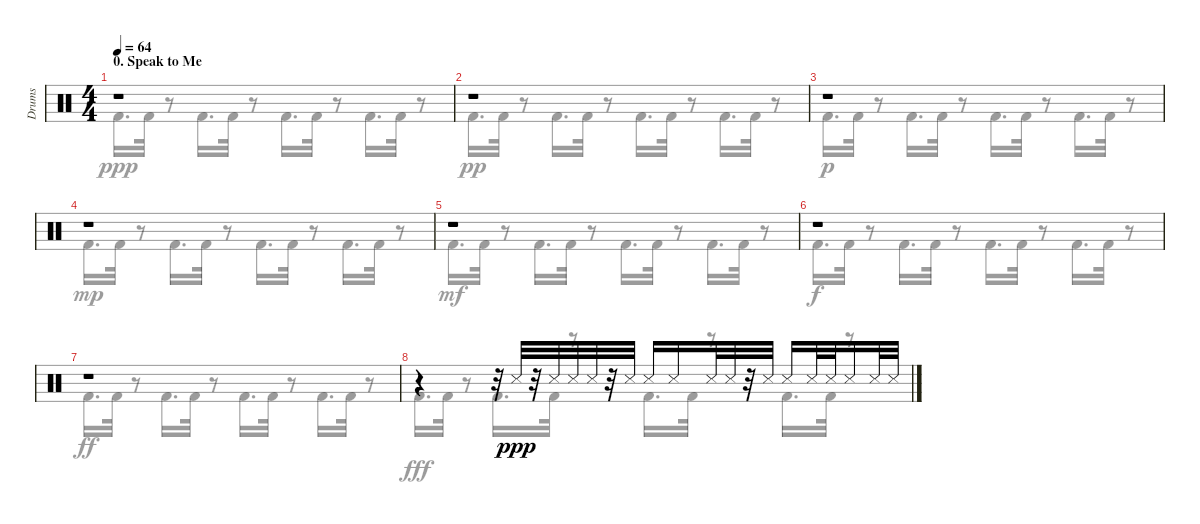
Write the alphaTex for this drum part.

\track ("Drums" "Drums") {instrument percussion}
\staff {score}
\articulation defaults
\voice
\ts (4 4)
\section ("" "0. Speak to Me")
\tempo 64
\clef neutral
\ks c
r.1{dy ppp volume 12} |
r.1 |
r.1 |
r.1 |
r.1 |
r.1 |
r.1 |
r.4 r.32 "Snare (side stick) 3".32 r.32 "Metronome (hit)".32 "Snare (side stick) 3".32 "Metronome (hit)".32 r.32 "Snare (side stick) 3".32 "Metronome (hit)".16 "Snare (side stick) 3".16 "Metronome (hit)".32 "Snare (side stick) 3".32 r.32 "Metronome (hit)".32 "Snare (side stick) 3".16 "Metronome (hit)".32 "Snare (side stick) 3".32 "Metronome (hit)".16 "Snare (side stick) 3".32 "Metronome (hit)".32
\voice
\clef neutral
\ottava regular
\simile none
\ks c "Kick (hit) 2".16{d dy ppp} "Kick (hit) 2".32
r.8 "Kick (hit) 2".16{d} "Kick (hit) 2".32 r.8 "Kick (hit) 2".16{d} "Kick (hit) 2".32 r.8 "Kick (hit) 2".16{d} "Kick (hit) 2".32 r.8 |
"Kick (hit) 2".16{d dy pp} "Kick (hit) 2".32 r.8 "Kick (hit) 2".16{d} "Kick (hit) 2".32 r.8 "Kick (hit) 2".16{d} "Kick (hit) 2".32 r.8 "Kick (hit) 2".16{d} "Kick (hit) 2".32 r.8 |
"Kick (hit) 2".16{d dy p} "Kick (hit) 2".32 r.8 "Kick (hit) 2".16{d} "Kick (hit) 2".32 r.8 "Kick (hit) 2".16{d} "Kick (hit) 2".32 r.8 "Kick (hit) 2".16{d} "Kick (hit) 2".32 r.8 |
"Kick (hit) 2".16{d dy mp} "Kick (hit) 2".32 r.8 "Kick (hit) 2".16{d} "Kick (hit) 2".32 r.8 "Kick (hit) 2".16{d} "Kick (hit) 2".32 r.8 "Kick (hit) 2".16{d} "Kick (hit) 2".32 r.8 |
"Kick (hit) 2".16{d dy mf} "Kick (hit) 2".32 r.8 "Kick (hit) 2".16{d} "Kick (hit) 2".32 r.8 "Kick (hit) 2".16{d} "Kick (hit) 2".32 r.8 "Kick (hit) 2".16{d} "Kick (hit) 2".32 r.8 |
"Kick (hit) 2".16{d dy f} "Kick (hit) 2".32 r.8 "Kick (hit) 2".16{d} "Kick (hit) 2".32 r.8 "Kick (hit) 2".16{d} "Kick (hit) 2".32 r.8 "Kick (hit) 2".16{d} "Kick (hit) 2".32 r.8 |
"Kick (hit) 2".16{d dy ff} "Kick (hit) 2".32 r.8 "Kick (hit) 2".16{d} "Kick (hit) 2".32 r.8 "Kick (hit) 2".16{d} "Kick (hit) 2".32 r.8 "Kick (hit) 2".16{d} "Kick (hit) 2".32 r.8 |
"Kick (hit) 2".16{d dy fff} "Kick (hit) 2".32 r.8 "Kick (hit) 2".16{d} "Kick (hit) 2".32 r.8 "Kick (hit) 2".16{d} "Kick (hit) 2".32 r.8 "Kick (hit) 2".16{d} "Kick (hit) 2".32 r.8
